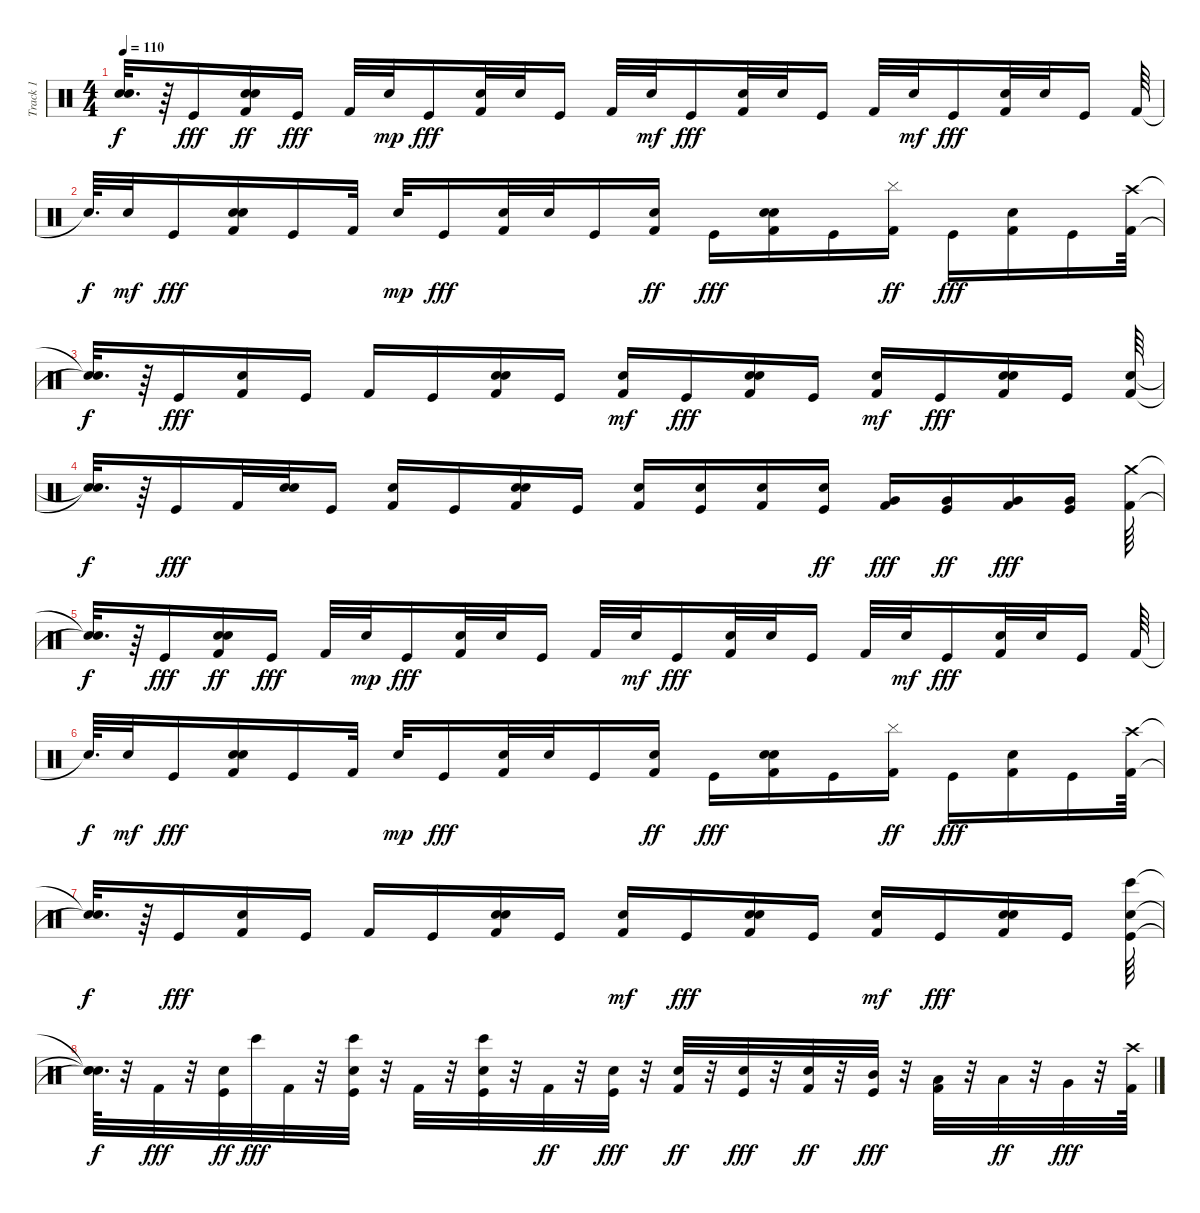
\track ("Track 1" "Track 1") {mute instrument percussion}
\staff {score}
\articulation defaults
\ts (4 4)
\tempo 110
\clef neutral
\ks c
("Snare (hit)"{t} "Snare (hit)"{t}).32{d dy f} r.64 "Kick (hit)".16{dy fff} ("Kick (hit) 2" "Snare (hit) 2" "Snare (hit)").16{dy ff} "Kick (hit)".16{dy fff} "Kick (hit) 2".32 "Snare (hit)".32{dy mp} "Kick (hit)".16{dy fff} ("Kick (hit) 2" "Snare (hit) 2").32 "Snare (hit)".32 "Kick (hit)".16 "Kick (hit) 2".32 "Snare (hit)".32{dy mf} "Kick (hit)".16{dy fff} ("Kick (hit) 2" "Snare (hit) 2").32 "Snare (hit)".32 "Kick (hit)".16 "Kick (hit) 2".32 "Snare (hit)".32{dy mf} "Kick (hit)".16{dy fff} ("Kick (hit) 2" "Snare (hit) 2").32 "Snare (hit)".32 "Kick (hit)".16 "Kick (hit) 2".64 |
"Snare (hit)"{t}.64{d dy f} "Snare (hit)".32{dy mf} "Kick (hit)".16{dy fff} ("Kick (hit) 2" "Snare (hit) 2" "Snare (hit)").16 "Kick (hit)".16 "Kick (hit) 2".32 "Snare (hit)".32{dy mp} "Kick (hit)".16{dy fff} ("Kick (hit) 2" "Snare (hit)").32 "Snare (hit) 2".32 "Kick (hit)".16 ("Kick (hit) 2" "Snare (hit)").16{dy ff} "Kick (hit)".16{dy fff} ("Kick (hit) 2" "Snare (hit)" "Snare (hit) 2").16 "Kick (hit)".16 ("Kick (hit) 2" "Cymbal (hit)").16{dy ff} "Kick (hit)".16{dy fff} ("Kick (hit) 2" "Snare (hit) 2").16 "Kick (hit)".16 ("Kick (hit) 2" "Crash high (hit)").64 |
("Snare (hit)"{t} "Snare (hit)"{t}).32{d dy f} r.64 "Kick (hit)".16{dy fff} ("Kick (hit) 2" "Snare (hit) 2").16 "Kick (hit)".16 "Kick (hit) 2".16 "Kick (hit)".16 ("Kick (hit) 2" "Snare (hit)" "Snare (hit) 2").16 "Kick (hit)".16 ("Kick (hit) 2" "Snare (hit)").16{dy mf} "Kick (hit)".16{dy fff} ("Kick (hit) 2" "Snare (hit) 2" "Snare (hit)").16 "Kick (hit)".16 ("Kick (hit) 2" "Snare (hit)").16{dy mf} "Kick (hit)".16{dy fff} ("Kick (hit) 2" "Snare (hit) 2" "Snare (hit)").16 "Kick (hit)".16 ("Kick (hit) 2" "Snare (hit)").64 |
("Snare (hit)"{t} "Snare (hit)"{t}).32{d dy f} r.64 "Kick (hit)".16{dy fff} "Kick (hit) 2".32 ("Snare (hit) 2" "Snare (hit)").32 "Kick (hit)".16 ("Kick (hit) 2" "Snare (hit)").16 "Kick (hit)".16 ("Snare (hit)" "Kick (hit) 2" "Snare (hit) 2").16 "Kick (hit)".16 ("Kick (hit) 2" "Snare (hit) 2").16 ("Kick (hit)" "Snare (hit) 2").16 ("Kick (hit) 2" "Snare (hit) 2").16 ("Kick (hit)" "Snare (hit) 2").16{dy ff} ("Kick (hit) 2" "Very Low Tom (hit)").16{dy fff} ("Kick (hit)" "Very Low Tom (hit)").16{dy ff} ("Kick (hit) 2" "Very Low Tom (hit)").16{dy fff} ("Kick (hit)" "Very Low Tom (hit)").16 ("Kick (hit) 2" "Crash medium (hit)").64 |
("Snare (hit)"{t} "Snare (hit)"{t}).32{d dy f} r.64 "Kick (hit)".16{dy fff} ("Kick (hit) 2" "Snare (hit) 2" "Snare (hit)").16{dy ff} "Kick (hit)".16{dy fff} "Kick (hit) 2".32 "Snare (hit)".32{dy mp} "Kick (hit)".16{dy fff} ("Kick (hit) 2" "Snare (hit) 2").32 "Snare (hit)".32 "Kick (hit)".16 "Kick (hit) 2".32 "Snare (hit)".32{dy mf} "Kick (hit)".16{dy fff} ("Kick (hit) 2" "Snare (hit) 2").32 "Snare (hit)".32 "Kick (hit)".16 "Kick (hit) 2".32 "Snare (hit)".32{dy mf} "Kick (hit)".16{dy fff} ("Kick (hit) 2" "Snare (hit) 2").32 "Snare (hit)".32 "Kick (hit)".16 "Kick (hit) 2".64 |
"Snare (hit)"{t}.64{d dy f} "Snare (hit)".32{dy mf} "Kick (hit)".16{dy fff} ("Kick (hit) 2" "Snare (hit) 2" "Snare (hit)").16 "Kick (hit)".16 "Kick (hit) 2".32 "Snare (hit)".32{dy mp} "Kick (hit)".16{dy fff} ("Kick (hit) 2" "Snare (hit)").32 "Snare (hit) 2".32 "Kick (hit)".16 ("Kick (hit) 2" "Snare (hit)").16{dy ff} "Kick (hit)".16{dy fff} ("Kick (hit) 2" "Snare (hit)" "Snare (hit) 2").16 "Kick (hit)".16 ("Kick (hit) 2" "Cymbal (hit)").16{dy ff} "Kick (hit)".16{dy fff} ("Kick (hit) 2" "Snare (hit) 2").16 "Kick (hit)".16 ("Kick (hit) 2" "Crash high (hit)").64 |
("Snare (hit)"{t} "Snare (hit)"{t}).32{d dy f} r.64 "Kick (hit)".16{dy fff} ("Kick (hit) 2" "Snare (hit) 2").16 "Kick (hit)".16 "Kick (hit) 2".16 "Kick (hit)".16 ("Kick (hit) 2" "Snare (hit)" "Snare (hit) 2").16 "Kick (hit)".16 ("Kick (hit) 2" "Snare (hit)").16{dy mf} "Kick (hit)".16{dy fff} ("Kick (hit) 2" "Snare (hit) 2" "Snare (hit)").16 "Kick (hit)".16 ("Kick (hit) 2" "Snare (hit)").16{dy mf} "Kick (hit)".16{dy fff} ("Kick (hit) 2" "Snare (hit) 2" "Snare (hit)").16 "Kick (hit)".16 ("Kick (hit)" "Snare (hit) 2" "Bongo High (hit)").64 |
("Snare (hit)"{t} "Snare (hit)"{t} "Snare (hit)"{t}).64{d dy f} r.32 "Kick (hit) 2".32{dy fff} r.32 ("Kick (hit)" "Snare (hit) 2").32{dy ff} "Bongo High (hit)".32{dy fff} "Kick (hit) 2".32 r.32 ("Kick (hit)" "Snare (hit) 2" "Bongo High (hit)").32 r.32 "Kick (hit) 2".32 r.32 ("Snare (hit) 2" "Kick (hit)" "Bongo High (hit)").32 r.32 "Kick (hit) 2".32{dy ff} r.32 ("Kick (hit)" "Snare (hit) 2").32{dy fff} r.32 ("Snare (hit) 2" "Kick (hit) 2").32{dy ff} r.32 ("Kick (hit)" "Snare (hit) 2").32{dy fff} r.32 ("Kick (hit) 2" "Snare (hit) 2").32{dy ff} r.32 ("Kick (hit)" "Mid Tom (hit)").32{dy fff} r.32 ("Kick (hit) 2" "Low Tom (hit)").32 r.32 "Low Tom (hit)".32{dy ff} r.32 "Very Low Tom (hit)".32{dy fff} r.32 ("Crash high (hit)" "Kick (hit) 2").64
